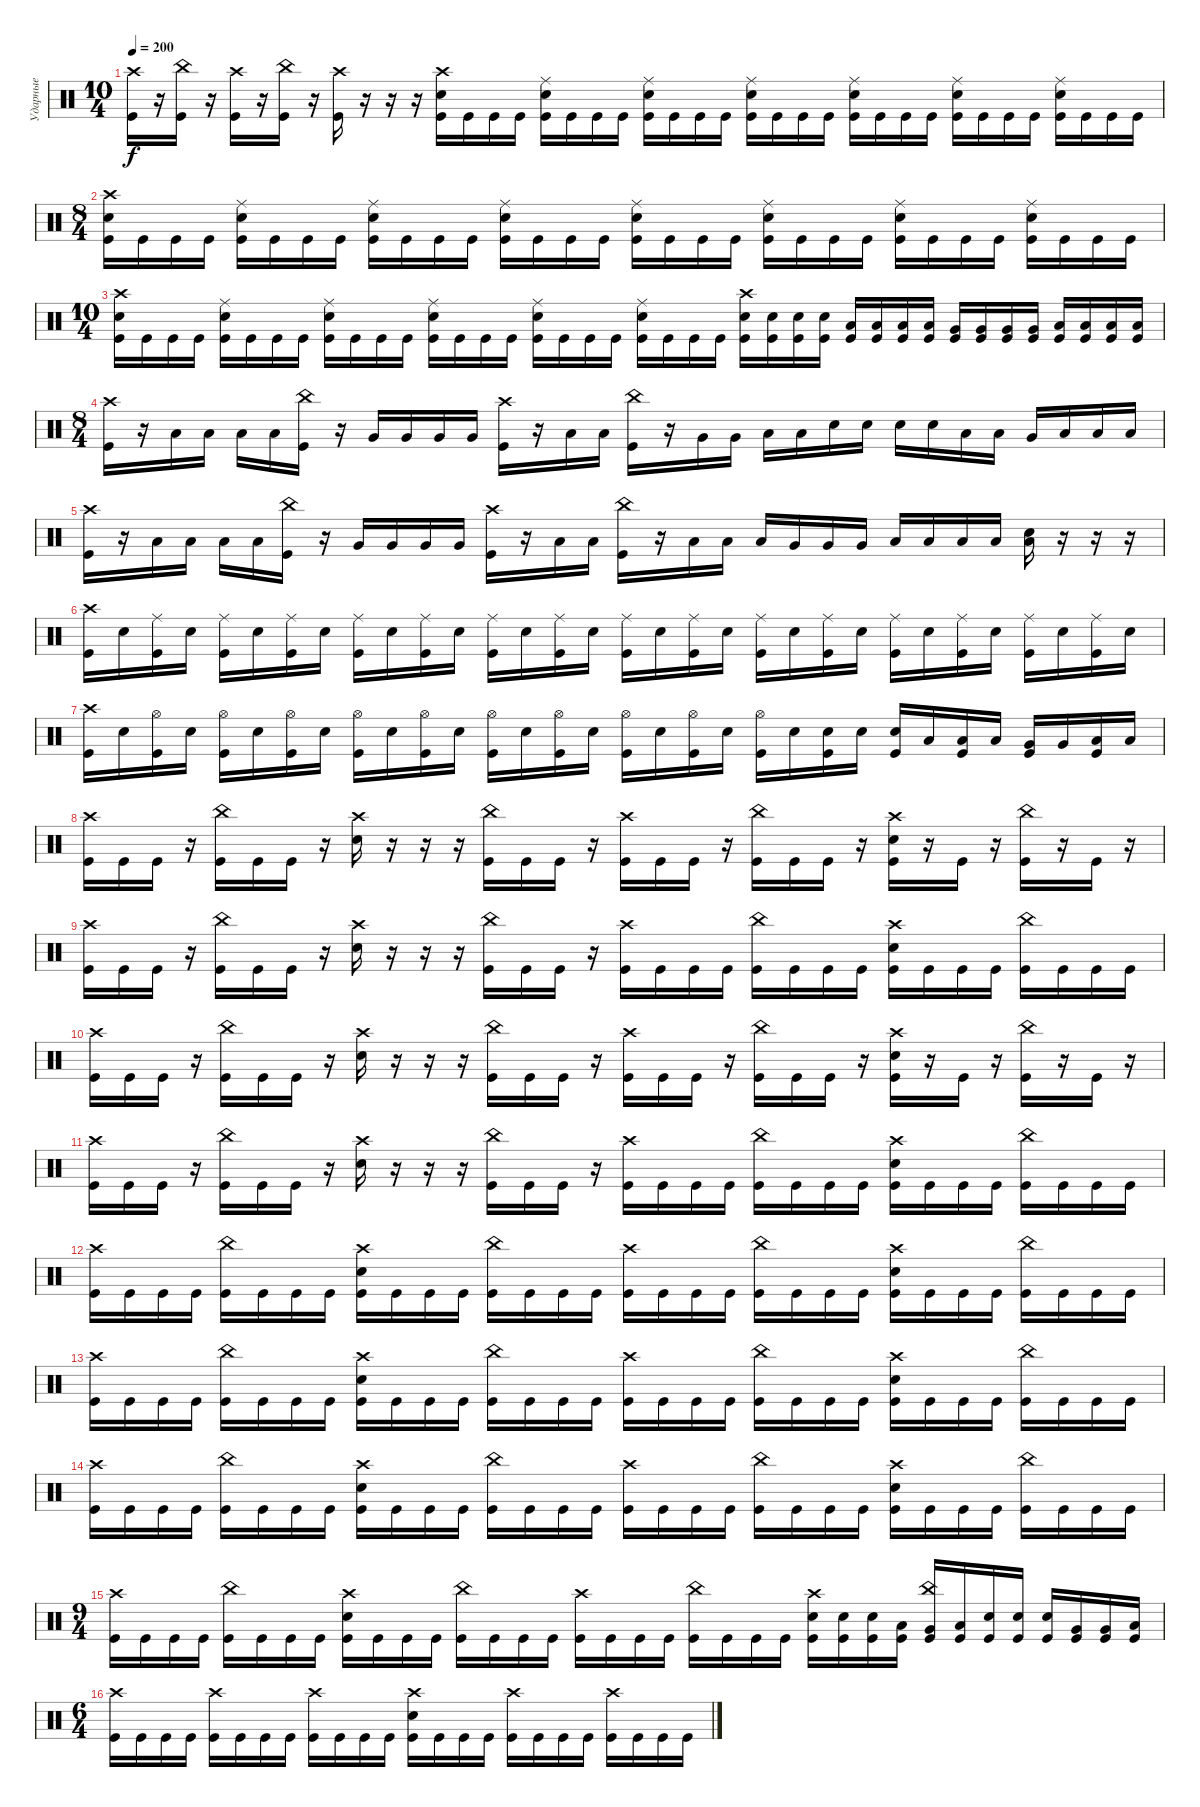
\track ("Ударные" "Ударные") {instrument percussion}
\staff {score}
\articulation defaults
\ts (10 4)
\tempo 200
\clef neutral
\ks c
("Crash high (hit)" "Kick (hit)").16{dy f} r.16 ("China (hit)" "Kick (hit)").16 r.16 ("Crash high (hit)" "Kick (hit)").16 r.16 ("China (hit)" "Kick (hit)").16 r.16 ("Crash high (hit)" "Kick (hit)").16 r.16 r.16 r.16 ("Crash high (hit)" "Snare (hit) 2" "Kick (hit)").16 "Kick (hit)".16 "Kick (hit)".16 "Kick (hit)".16 ("Ride (middle)" "Snare (hit) 2" "Kick (hit)").16 "Kick (hit)".16 "Kick (hit)".16 "Kick (hit)".16 ("Ride (middle)" "Snare (hit) 2" "Kick (hit)").16 "Kick (hit)".16 "Kick (hit)".16 "Kick (hit)".16 ("Ride (middle)" "Snare (hit) 2" "Kick (hit)").16 "Kick (hit)".16 "Kick (hit)".16 "Kick (hit)".16 ("Ride (middle)" "Snare (hit) 2" "Kick (hit)").16 "Kick (hit)".16 "Kick (hit)".16 "Kick (hit)".16 ("Ride (middle)" "Snare (hit) 2" "Kick (hit)").16 "Kick (hit)".16 "Kick (hit)".16 "Kick (hit)".16 ("Ride (middle)" "Snare (hit) 2" "Kick (hit)").16 "Kick (hit)".16 "Kick (hit)".16 "Kick (hit)".16 |
\ts (8 4)
("Crash high (hit)" "Snare (hit) 2" "Kick (hit)").16 "Kick (hit)".16 "Kick (hit)".16 "Kick (hit)".16 ("Ride (middle)" "Snare (hit) 2" "Kick (hit)").16 "Kick (hit)".16 "Kick (hit)".16 "Kick (hit)".16 ("Ride (middle)" "Snare (hit) 2" "Kick (hit)").16 "Kick (hit)".16 "Kick (hit)".16 "Kick (hit)".16 ("Ride (middle)" "Snare (hit) 2" "Kick (hit)").16 "Kick (hit)".16 "Kick (hit)".16 "Kick (hit)".16 ("Ride (middle)" "Snare (hit) 2" "Kick (hit)").16 "Kick (hit)".16 "Kick (hit)".16 "Kick (hit)".16 ("Ride (middle)" "Snare (hit) 2" "Kick (hit)").16 "Kick (hit)".16 "Kick (hit)".16 "Kick (hit)".16 ("Ride (middle)" "Snare (hit) 2" "Kick (hit)").16 "Kick (hit)".16 "Kick (hit)".16 "Kick (hit)".16 ("Ride (middle)" "Snare (hit) 2" "Kick (hit)").16 "Kick (hit)".16 "Kick (hit)".16 "Kick (hit)".16 |
\ts (10 4)
("Crash high (hit)" "Snare (hit) 2" "Kick (hit)").16 "Kick (hit)".16 "Kick (hit)".16 "Kick (hit)".16 ("Ride (middle)" "Snare (hit) 2" "Kick (hit)").16 "Kick (hit)".16 "Kick (hit)".16 "Kick (hit)".16 ("Ride (middle)" "Snare (hit) 2" "Kick (hit)").16 "Kick (hit)".16 "Kick (hit)".16 "Kick (hit)".16 ("Ride (middle)" "Snare (hit) 2" "Kick (hit)").16 "Kick (hit)".16 "Kick (hit)".16 "Kick (hit)".16 ("Ride (middle)" "Snare (hit) 2" "Kick (hit)").16 "Kick (hit)".16 "Kick (hit)".16 "Kick (hit)".16 ("Ride (middle)" "Snare (hit) 2" "Kick (hit)").16 "Kick (hit)".16 "Kick (hit)".16 "Kick (hit)".16 ("Crash high (hit)" "Snare (hit) 2" "Kick (hit)").16 ("Snare (hit) 2" "Kick (hit)").16 ("Snare (hit) 2" "Kick (hit)").16 ("Snare (hit) 2" "Kick (hit)").16 ("Low Tom (hit)" "Kick (hit)").16 ("Low Tom (hit)" "Kick (hit)").16 ("Low Tom (hit)" "Kick (hit)").16 ("Low Tom (hit)" "Kick (hit)").16 ("Very Low Tom (hit)" "Kick (hit)").16 ("Very Low Tom (hit)" "Kick (hit)").16 ("Very Low Tom (hit)" "Kick (hit)").16 ("Very Low Tom (hit)" "Kick (hit)").16 ("Low Floor Tom (hit)" "Kick (hit)").16 ("Low Floor Tom (hit)" "Kick (hit)").16 ("Low Floor Tom (hit)" "Kick (hit)").16 ("Low Floor Tom (hit)" "Kick (hit)").16 |
\ts (8 4)
("Crash high (hit)" "Kick (hit)").16 r.16 "Low Tom (hit)".16 "Low Tom (hit)".16 "Low Tom (hit)".16 "Low Tom (hit)".16 ("China (hit)" "Kick (hit)").16 r.16 "Very Low Tom (hit)".16 "Very Low Tom (hit)".16 "Very Low Tom (hit)".16 "Very Low Tom (hit)".16 ("Crash high (hit)" "Kick (hit)").16 r.16 "Low Floor Tom (hit)".16 "Low Floor Tom (hit)".16 ("China (hit)" "Kick (hit)").16 r.16 "Very Low Tom (hit)".16 "Very Low Tom (hit)".16 "Low Floor Tom (hit)".16 "Low Floor Tom (hit)".16 "Snare (hit) 2".16 "Snare (hit) 2".16 "Snare (hit) 2".16 "Snare (hit) 2".16 "Low Tom (hit)".16 "Low Tom (hit)".16 "Very Low Tom (hit)".16 "Low Tom (hit)".16 "Low Floor Tom (hit)".16 "Low Floor Tom (hit)".16 |
("Crash high (hit)" "Kick (hit)").16 r.16 "Low Tom (hit)".16 "Low Tom (hit)".16 "Low Tom (hit)".16 "Low Tom (hit)".16 ("China (hit)" "Kick (hit)").16 r.16 "Very Low Tom (hit)".16 "Very Low Tom (hit)".16 "Very Low Tom (hit)".16 "Very Low Tom (hit)".16 ("Crash high (hit)" "Kick (hit)").16 r.16 "Low Floor Tom (hit)".16 "Low Floor Tom (hit)".16 ("China (hit)" "Kick (hit)").16 r.16 "Low Tom (hit)".16 "Low Tom (hit)".16 "Low Tom (hit)".16 "Very Low Tom (hit)".16 "Very Low Tom (hit)".16 "Very Low Tom (hit)".16 "Low Floor Tom (hit)".16 "Low Floor Tom (hit)".16 "Low Floor Tom (hit)".16 "Low Floor Tom (hit)".16 ("Low Floor Tom (hit)" "Snare (hit) 2").16 r.16 r.16 r.16 |
("Crash high (hit)" "Kick (hit)").16 "Snare (hit) 2".16 ("Ride (middle)" "Kick (hit)").16 "Snare (hit) 2".16 ("Ride (middle)" "Kick (hit)").16 "Snare (hit) 2".16 ("Ride (middle)" "Kick (hit)").16 "Snare (hit) 2".16 ("Ride (middle)" "Kick (hit)").16 "Snare (hit) 2".16 ("Ride (middle)" "Kick (hit)").16 "Snare (hit) 2".16 ("Ride (middle)" "Kick (hit)").16 "Snare (hit) 2".16 ("Ride (middle)" "Kick (hit)").16 "Snare (hit) 2".16 ("Ride (middle)" "Kick (hit)").16 "Snare (hit) 2".16 ("Ride (middle)" "Kick (hit)").16 "Snare (hit) 2".16 ("Ride (middle)" "Kick (hit)").16 "Snare (hit) 2".16 ("Ride (middle)" "Kick (hit)").16 "Snare (hit) 2".16 ("Ride (middle)" "Kick (hit)").16 "Snare (hit) 2".16 ("Ride (middle)" "Kick (hit)").16 "Snare (hit) 2".16 ("Ride (middle)" "Kick (hit)").16 "Snare (hit) 2".16 ("Ride (middle)" "Kick (hit)").16 "Snare (hit) 2".16 |
("Crash high (hit)" "Kick (hit)").16 "Snare (hit) 2".16 ("Hi-Hat (open)" "Kick (hit)").16 "Snare (hit) 2".16 ("Hi-Hat (open)" "Kick (hit)").16 "Snare (hit) 2".16 ("Hi-Hat (open)" "Kick (hit)").16 "Snare (hit) 2".16 ("Hi-Hat (open)" "Kick (hit)").16 "Snare (hit) 2".16 ("Hi-Hat (open)" "Kick (hit)").16 "Snare (hit) 2".16 ("Hi-Hat (open)" "Kick (hit)").16 "Snare (hit) 2".16 ("Hi-Hat (open)" "Kick (hit)").16 "Snare (hit) 2".16 ("Hi-Hat (open)" "Kick (hit)").16 "Snare (hit) 2".16 ("Hi-Hat (open)" "Kick (hit)").16 "Snare (hit) 2".16 ("Hi-Hat (open)" "Kick (hit)").16 "Snare (hit) 2".16 ("Snare (hit) 2" "Kick (hit)").16 "Snare (hit) 2".16 ("Snare (hit) 2" "Kick (hit)").16 "Low Tom (hit)".16 ("Low Tom (hit)" "Kick (hit)").16 "Low Tom (hit)".16 ("Very Low Tom (hit)" "Kick (hit)").16 "Very Low Tom (hit)".16 ("Low Floor Tom (hit)" "Kick (hit)").16 "Low Floor Tom (hit)".16 |
("Crash high (hit)" "Kick (hit)").16 "Kick (hit)".16 "Kick (hit)".16 r.16 ("China (hit)" "Kick (hit)").16 "Kick (hit)".16 "Kick (hit)".16 r.16 ("Crash high (hit)" "Snare (hit) 2").16 r.16 r.16 r.16 ("China (hit)" "Kick (hit)").16 "Kick (hit)".16 "Kick (hit)".16 r.16 ("Crash high (hit)" "Kick (hit)").16 "Kick (hit)".16 "Kick (hit)".16 r.16 ("China (hit)" "Kick (hit)").16 "Kick (hit)".16 "Kick (hit)".16 r.16 ("Crash high (hit)" "Snare (hit) 2" "Kick (hit)").16 r.16 "Kick (hit)".16 r.16 ("China (hit)" "Kick (hit)").16 r.16 "Kick (hit)".16 r.16 |
("Crash high (hit)" "Kick (hit)").16 "Kick (hit)".16 "Kick (hit)".16 r.16 ("China (hit)" "Kick (hit)").16 "Kick (hit)".16 "Kick (hit)".16 r.16 ("Crash high (hit)" "Snare (hit) 2").16 r.16 r.16 r.16 ("China (hit)" "Kick (hit)").16 "Kick (hit)".16 "Kick (hit)".16 r.16 ("Crash high (hit)" "Kick (hit)").16 "Kick (hit)".16 "Kick (hit)".16 "Kick (hit)".16 ("China (hit)" "Kick (hit)").16 "Kick (hit)".16 "Kick (hit)".16 "Kick (hit)".16 ("Crash high (hit)" "Snare (hit) 2" "Kick (hit)").16 "Kick (hit)".16 "Kick (hit)".16 "Kick (hit)".16 ("China (hit)" "Kick (hit)").16 "Kick (hit)".16 "Kick (hit)".16 "Kick (hit)".16 |
("Crash high (hit)" "Kick (hit)").16 "Kick (hit)".16 "Kick (hit)".16 r.16 ("China (hit)" "Kick (hit)").16 "Kick (hit)".16 "Kick (hit)".16 r.16 ("Crash high (hit)" "Snare (hit) 2").16 r.16 r.16 r.16 ("China (hit)" "Kick (hit)").16 "Kick (hit)".16 "Kick (hit)".16 r.16 ("Crash high (hit)" "Kick (hit)").16 "Kick (hit)".16 "Kick (hit)".16 r.16 ("China (hit)" "Kick (hit)").16 "Kick (hit)".16 "Kick (hit)".16 r.16 ("Crash high (hit)" "Snare (hit) 2" "Kick (hit)").16 r.16 "Kick (hit)".16 r.16 ("China (hit)" "Kick (hit)").16 r.16 "Kick (hit)".16 r.16 |
("Crash high (hit)" "Kick (hit)").16 "Kick (hit)".16 "Kick (hit)".16 r.16 ("China (hit)" "Kick (hit)").16 "Kick (hit)".16 "Kick (hit)".16 r.16 ("Crash high (hit)" "Snare (hit) 2").16 r.16 r.16 r.16 ("China (hit)" "Kick (hit)").16 "Kick (hit)".16 "Kick (hit)".16 r.16 ("Crash high (hit)" "Kick (hit)").16 "Kick (hit)".16 "Kick (hit)".16 "Kick (hit)".16 ("China (hit)" "Kick (hit)").16 "Kick (hit)".16 "Kick (hit)".16 "Kick (hit)".16 ("Crash high (hit)" "Snare (hit) 2" "Kick (hit)").16 "Kick (hit)".16 "Kick (hit)".16 "Kick (hit)".16 ("China (hit)" "Kick (hit)").16 "Kick (hit)".16 "Kick (hit)".16 "Kick (hit)".16 |
("Crash high (hit)" "Kick (hit)").16 "Kick (hit)".16 "Kick (hit)".16 "Kick (hit)".16 ("China (hit)" "Kick (hit)").16 "Kick (hit)".16 "Kick (hit)".16 "Kick (hit)".16 ("Crash high (hit)" "Snare (hit) 2" "Kick (hit)").16 "Kick (hit)".16 "Kick (hit)".16 "Kick (hit)".16 ("China (hit)" "Kick (hit)").16 "Kick (hit)".16 "Kick (hit)".16 "Kick (hit)".16 ("Crash high (hit)" "Kick (hit)").16 "Kick (hit)".16 "Kick (hit)".16 "Kick (hit)".16 ("China (hit)" "Kick (hit)").16 "Kick (hit)".16 "Kick (hit)".16 "Kick (hit)".16 ("Crash high (hit)" "Snare (hit) 2" "Kick (hit)").16 "Kick (hit)".16 "Kick (hit)".16 "Kick (hit)".16 ("China (hit)" "Kick (hit)").16 "Kick (hit)".16 "Kick (hit)".16 "Kick (hit)".16 |
("Crash high (hit)" "Kick (hit)").16 "Kick (hit)".16 "Kick (hit)".16 "Kick (hit)".16 ("China (hit)" "Kick (hit)").16 "Kick (hit)".16 "Kick (hit)".16 "Kick (hit)".16 ("Crash high (hit)" "Snare (hit) 2" "Kick (hit)").16 "Kick (hit)".16 "Kick (hit)".16 "Kick (hit)".16 ("China (hit)" "Kick (hit)").16 "Kick (hit)".16 "Kick (hit)".16 "Kick (hit)".16 ("Crash high (hit)" "Kick (hit)").16 "Kick (hit)".16 "Kick (hit)".16 "Kick (hit)".16 ("China (hit)" "Kick (hit)").16 "Kick (hit)".16 "Kick (hit)".16 "Kick (hit)".16 ("Crash high (hit)" "Snare (hit) 2" "Kick (hit)").16 "Kick (hit)".16 "Kick (hit)".16 "Kick (hit)".16 ("China (hit)" "Kick (hit)").16 "Kick (hit)".16 "Kick (hit)".16 "Kick (hit)".16 |
("Crash high (hit)" "Kick (hit)").16 "Kick (hit)".16 "Kick (hit)".16 "Kick (hit)".16 ("China (hit)" "Kick (hit)").16 "Kick (hit)".16 "Kick (hit)".16 "Kick (hit)".16 ("Crash high (hit)" "Snare (hit) 2" "Kick (hit)").16 "Kick (hit)".16 "Kick (hit)".16 "Kick (hit)".16 ("China (hit)" "Kick (hit)").16 "Kick (hit)".16 "Kick (hit)".16 "Kick (hit)".16 ("Crash high (hit)" "Kick (hit)").16 "Kick (hit)".16 "Kick (hit)".16 "Kick (hit)".16 ("China (hit)" "Kick (hit)").16 "Kick (hit)".16 "Kick (hit)".16 "Kick (hit)".16 ("Crash high (hit)" "Snare (hit) 2" "Kick (hit)").16 "Kick (hit)".16 "Kick (hit)".16 "Kick (hit)".16 ("China (hit)" "Kick (hit)").16 "Kick (hit)".16 "Kick (hit)".16 "Kick (hit)".16 |
\ts (9 4)
("Crash high (hit)" "Kick (hit)").16 "Kick (hit)".16 "Kick (hit)".16 "Kick (hit)".16 ("China (hit)" "Kick (hit)").16 "Kick (hit)".16 "Kick (hit)".16 "Kick (hit)".16 ("Crash high (hit)" "Snare (hit) 2" "Kick (hit)").16 "Kick (hit)".16 "Kick (hit)".16 "Kick (hit)".16 ("China (hit)" "Kick (hit)").16 "Kick (hit)".16 "Kick (hit)".16 "Kick (hit)".16 ("Crash high (hit)" "Kick (hit)").16 "Kick (hit)".16 "Kick (hit)".16 "Kick (hit)".16 ("China (hit)" "Kick (hit)").16 "Kick (hit)".16 "Kick (hit)".16 "Kick (hit)".16 ("Crash high (hit)" "Snare (hit) 2" "Kick (hit)").16 ("Snare (hit) 2" "Kick (hit)").16 ("Snare (hit) 2" "Kick (hit)").16 ("Low Tom (hit)" "Kick (hit)").16 ("China (hit)" "Very Low Tom (hit)" "Kick (hit)").16 ("Low Floor Tom (hit)" "Kick (hit)").16 ("Snare (hit) 2" "Kick (hit)").16 ("Snare (hit) 2" "Kick (hit)").16 ("Snare (hit) 2" "Kick (hit)").16 ("Very Low Tom (hit)" "Kick (hit)").16 ("Very Low Tom (hit)" "Kick (hit)").16 ("Low Floor Tom (hit)" "Kick (hit)").16 |
\ts (6 4)
("Crash high (hit)" "Kick (hit)").16 "Kick (hit)".16 "Kick (hit)".16 "Kick (hit)".16 ("Crash high (hit)" "Kick (hit)").16 "Kick (hit)".16 "Kick (hit)".16 "Kick (hit)".16 ("Crash high (hit)" "Kick (hit)").16 "Kick (hit)".16 "Kick (hit)".16 "Kick (hit)".16 ("Crash high (hit)" "Snare (hit) 2" "Kick (hit)").16 "Kick (hit)".16 "Kick (hit)".16 "Kick (hit)".16 ("Crash high (hit)" "Kick (hit)").16 "Kick (hit)".16 "Kick (hit)".16 "Kick (hit)".16 ("Crash high (hit)" "Kick (hit)").16 "Kick (hit)".16 "Kick (hit)".16 "Kick (hit)".16
